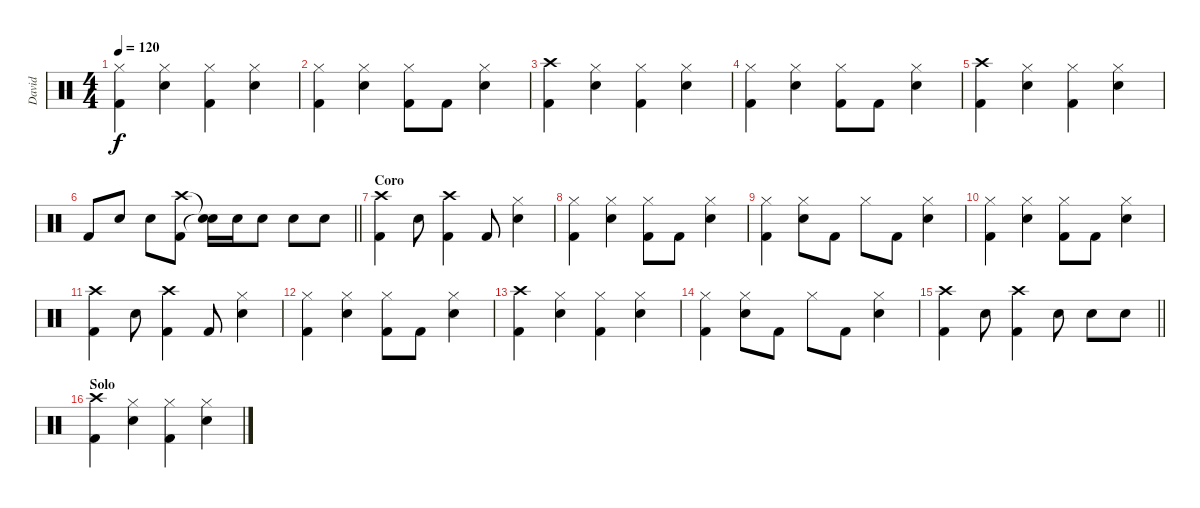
\track ("David" "David") {instrument percussion}
\staff {score}
\articulation defaults
\ts (4 4)
\tempo 120
\clef neutral
\ks c
("Hi-Hat (closed)" "Kick (hit) 2").4{dy f} ("Hi-Hat (closed)" "Snare (hit) 2").4 ("Hi-Hat (closed)" "Kick (hit) 2").4 ("Hi-Hat (closed)" "Snare (hit) 2").4 |
("Hi-Hat (closed)" "Kick (hit) 2").4 ("Hi-Hat (closed)" "Snare (hit) 2").4 ("Hi-Hat (closed)" "Kick (hit) 2").8 "Kick (hit) 2".8 ("Hi-Hat (closed)" "Snare (hit) 2").4 |
("Crash high (hit)" "Kick (hit) 2").4 ("Hi-Hat (closed)" "Snare (hit) 2").4 ("Hi-Hat (closed)" "Kick (hit) 2").4 ("Hi-Hat (closed)" "Snare (hit) 2").4 |
("Hi-Hat (closed)" "Kick (hit) 2").4 ("Hi-Hat (closed)" "Snare (hit) 2").4 ("Hi-Hat (closed)" "Kick (hit) 2").8 "Kick (hit) 2".8 ("Hi-Hat (closed)" "Snare (hit) 2").4 |
("Crash high (hit)" "Kick (hit) 2").4 ("Hi-Hat (closed)" "Snare (hit) 2").4 ("Hi-Hat (closed)" "Kick (hit) 2").4 ("Hi-Hat (closed)" "Snare (hit) 2").4 |
\barLineRight lightlight "Kick (hit) 2".8 "Snare (hit) 2".8 "Snare (hit) 2".8
("Crash high (hit)" "Kick (hit) 2").8 ("Snare (hit)"{t} "Snare (hit)"{t}).16 "Snare (hit) 2".16 "Snare (hit) 2".8 "Snare (hit) 2".8 "Snare (hit) 2".8 |
\section ("" "Coro")
("Crash high (hit)" "Kick (hit) 2").4 "Snare (hit) 2".8 ("Crash high (hit)" "Kick (hit) 2").4 "Kick (hit) 2".8 ("Hi-Hat (closed)" "Snare (hit) 2").4 |
("Hi-Hat (closed)" "Kick (hit) 2").4 ("Hi-Hat (closed)" "Snare (hit) 2").4 ("Hi-Hat (closed)" "Kick (hit) 2").8 "Kick (hit) 2".8 ("Hi-Hat (closed)" "Snare (hit) 2").4 |
("Hi-Hat (closed)" "Kick (hit) 2").4 ("Hi-Hat (closed)" "Snare (hit) 2").8 "Kick (hit) 2".8 "Hi-Hat (closed)".8 "Kick (hit) 2".8 ("Hi-Hat (closed)" "Snare (hit) 2").4 |
("Hi-Hat (closed)" "Kick (hit) 2").4 ("Hi-Hat (closed)" "Snare (hit) 2").4 ("Hi-Hat (closed)" "Kick (hit) 2").8 "Kick (hit) 2".8 ("Hi-Hat (closed)" "Snare (hit) 2").4 |
("Crash high (hit)" "Kick (hit) 2").4 "Snare (hit) 2".8 ("Crash high (hit)" "Kick (hit) 2").4 "Kick (hit) 2".8 ("Hi-Hat (closed)" "Snare (hit) 2").4 |
("Hi-Hat (closed)" "Kick (hit) 2").4 ("Hi-Hat (closed)" "Snare (hit) 2").4 ("Hi-Hat (closed)" "Kick (hit) 2").8 "Kick (hit) 2".8 ("Hi-Hat (closed)" "Snare (hit) 2").4 |
("Crash high (hit)" "Kick (hit) 2").4 ("Hi-Hat (closed)" "Snare (hit) 2").4 ("Hi-Hat (closed)" "Kick (hit) 2").4 ("Hi-Hat (closed)" "Snare (hit) 2").4 |
("Hi-Hat (closed)" "Kick (hit) 2").4 ("Hi-Hat (closed)" "Snare (hit) 2").8 "Kick (hit) 2".8 "Hi-Hat (closed)".8 "Kick (hit) 2".8 ("Hi-Hat (closed)" "Snare (hit) 2").4 |
\barLineRight lightlight
("Crash high (hit)" "Kick (hit) 2").4 "Snare (hit) 2".8 ("Crash high (hit)" "Kick (hit) 2").4 "Snare (hit) 2".8 "Snare (hit) 2".8 "Snare (hit) 2".8 |
\section ("" "Solo")
("Crash high (hit)" "Kick (hit) 2").4 ("Hi-Hat (closed)" "Snare (hit) 2").4 ("Hi-Hat (closed)" "Kick (hit) 2").4 ("Hi-Hat (closed)" "Snare (hit) 2").4
